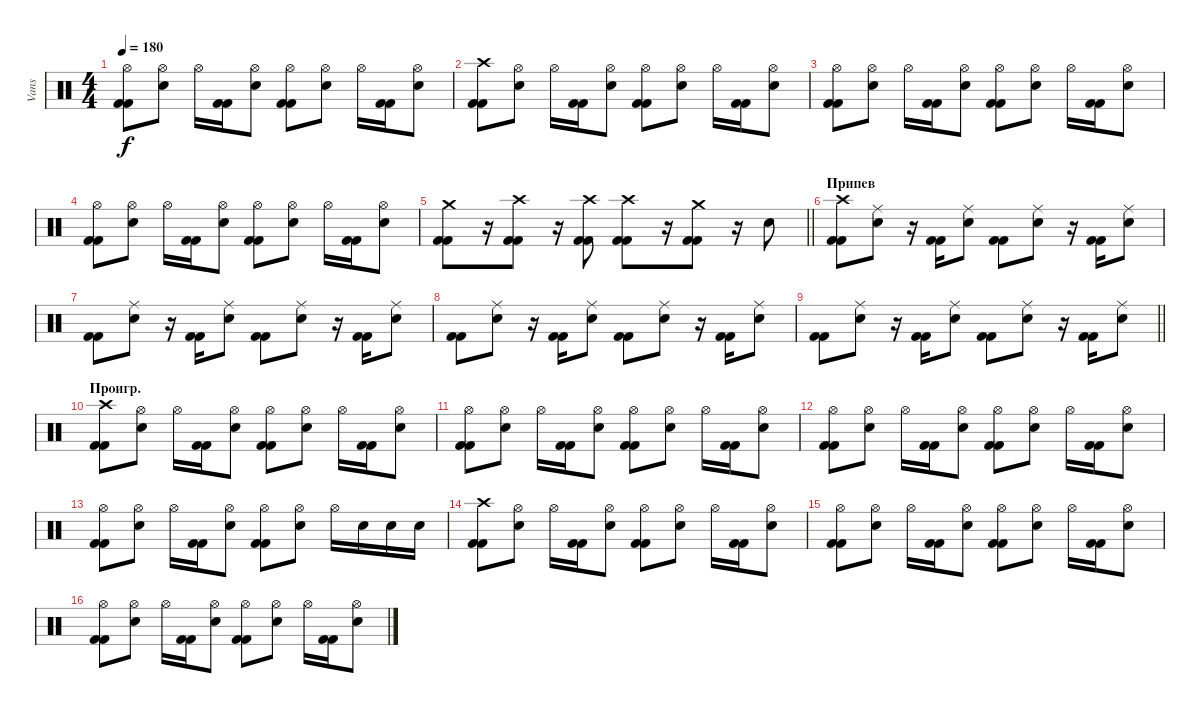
\track ("Vans" "Vans") {instrument percussion}
\staff {score}
\articulation defaults
\ts (4 4)
\tempo 180
\clef neutral
\ks c
("Hi-Hat (open)" "Kick (hit) 2" "Kick (hit) 2").8{dy f} ("Hi-Hat (open)" "Snare (hit) 2").8 "Hi-Hat (open)".16 ("Kick (hit) 2" "Kick (hit) 2").16 ("Hi-Hat (open)" "Snare (hit) 2").8 ("Hi-Hat (open)" "Kick (hit) 2" "Kick (hit) 2").8 ("Hi-Hat (open)" "Snare (hit) 2").8 "Hi-Hat (open)".16 ("Kick (hit) 2" "Kick (hit) 2").16 ("Hi-Hat (open)" "Snare (hit) 2").8 |
("Crash high (hit)" "Kick (hit) 2" "Kick (hit) 2").8 ("Hi-Hat (open)" "Snare (hit) 2").8 "Hi-Hat (open)".16 ("Kick (hit) 2" "Kick (hit) 2").16 ("Hi-Hat (open)" "Snare (hit) 2").8 ("Hi-Hat (open)" "Kick (hit) 2" "Kick (hit) 2").8 ("Hi-Hat (open)" "Snare (hit) 2").8 "Hi-Hat (open)".16 ("Kick (hit) 2" "Kick (hit) 2").16 ("Hi-Hat (open)" "Snare (hit) 2").8 |
("Hi-Hat (open)" "Kick (hit) 2" "Kick (hit) 2").8 ("Hi-Hat (open)" "Snare (hit) 2").8 "Hi-Hat (open)".16 ("Kick (hit) 2" "Kick (hit) 2").16 ("Hi-Hat (open)" "Snare (hit) 2").8 ("Hi-Hat (open)" "Kick (hit) 2" "Kick (hit) 2").8 ("Hi-Hat (open)" "Snare (hit) 2").8 "Hi-Hat (open)".16 ("Kick (hit) 2" "Kick (hit) 2").16 ("Hi-Hat (open)" "Snare (hit) 2").8 |
("Hi-Hat (open)" "Kick (hit) 2" "Kick (hit) 2").8 ("Hi-Hat (open)" "Snare (hit) 2").8 "Hi-Hat (open)".16 ("Kick (hit) 2" "Kick (hit) 2").16 ("Hi-Hat (open)" "Snare (hit) 2").8 ("Hi-Hat (open)" "Kick (hit) 2" "Kick (hit) 2").8 ("Hi-Hat (open)" "Snare (hit) 2").8 "Hi-Hat (open)".16 ("Kick (hit) 2" "Kick (hit) 2").16 ("Hi-Hat (open)" "Snare (hit) 2").8 |
\barLineRight lightlight
("Crash medium (hit)" "Kick (hit) 2" "Kick (hit) 2").8 r.16 ("Crash high (hit)" "Kick (hit) 2" "Kick (hit) 2").8 r.16 ("Crash high (hit)" "Kick (hit) 2" "Kick (hit) 2").8 ("Crash high (hit)" "Kick (hit) 2" "Kick (hit) 2").8 r.16 ("Crash medium (hit)" "Kick (hit) 2" "Kick (hit) 2").8 r.16 "Snare (hit) 2".8 |
\section ("" "Припев")
("Crash high (hit)" "Kick (hit) 2" "Kick (hit) 2").8 ("Ride (middle)" "Snare (hit) 2").8 r.16 ("Kick (hit) 2" "Kick (hit) 2").16 ("Ride (middle)" "Snare (hit) 2").8 ("Kick (hit) 2" "Kick (hit) 2").8 ("Ride (middle)" "Snare (hit) 2").8 r.16 ("Kick (hit) 2" "Kick (hit) 2").16 ("Ride (middle)" "Snare (hit) 2").8 |
("Kick (hit) 2" "Kick (hit) 2").8 ("Ride (middle)" "Snare (hit) 2").8 r.16 ("Kick (hit) 2" "Kick (hit) 2").16 ("Ride (middle)" "Snare (hit) 2").8 ("Kick (hit) 2" "Kick (hit) 2").8 ("Ride (middle)" "Snare (hit) 2").8 r.16 ("Kick (hit) 2" "Kick (hit) 2").16 ("Ride (middle)" "Snare (hit) 2").8 |
("Kick (hit) 2" "Kick (hit) 2").8 ("Ride (middle)" "Snare (hit) 2").8 r.16 ("Kick (hit) 2" "Kick (hit) 2").16 ("Ride (middle)" "Snare (hit) 2").8 ("Kick (hit) 2" "Kick (hit) 2").8 ("Ride (middle)" "Snare (hit) 2").8 r.16 ("Kick (hit) 2" "Kick (hit) 2").16 ("Ride (middle)" "Snare (hit) 2").8 |
\barLineRight lightlight
("Kick (hit) 2" "Kick (hit) 2").8 ("Ride (middle)" "Snare (hit) 2").8 r.16 ("Kick (hit) 2" "Kick (hit) 2").16 ("Ride (middle)" "Snare (hit) 2").8 ("Kick (hit) 2" "Kick (hit) 2").8 ("Ride (middle)" "Snare (hit) 2").8 r.16 ("Kick (hit) 2" "Kick (hit) 2").16 ("Ride (middle)" "Snare (hit) 2").8 |
\section ("" "Проигр.")
("Crash high (hit)" "Kick (hit) 2" "Kick (hit) 2").8 ("Hi-Hat (open)" "Snare (hit) 2").8 "Hi-Hat (open)".16 ("Kick (hit) 2" "Kick (hit) 2").16 ("Hi-Hat (open)" "Snare (hit) 2").8 ("Hi-Hat (open)" "Kick (hit) 2" "Kick (hit) 2").8 ("Hi-Hat (open)" "Snare (hit) 2").8 "Hi-Hat (open)".16 ("Kick (hit) 2" "Kick (hit) 2").16 ("Hi-Hat (open)" "Snare (hit) 2").8 |
("Hi-Hat (open)" "Kick (hit) 2" "Kick (hit) 2").8 ("Hi-Hat (open)" "Snare (hit) 2").8 "Hi-Hat (open)".16 ("Kick (hit) 2" "Kick (hit) 2").16 ("Hi-Hat (open)" "Snare (hit) 2").8 ("Hi-Hat (open)" "Kick (hit) 2" "Kick (hit) 2").8 ("Hi-Hat (open)" "Snare (hit) 2").8 "Hi-Hat (open)".16 ("Kick (hit) 2" "Kick (hit) 2").16 ("Hi-Hat (open)" "Snare (hit) 2").8 |
("Hi-Hat (open)" "Kick (hit) 2" "Kick (hit) 2").8 ("Hi-Hat (open)" "Snare (hit) 2").8 "Hi-Hat (open)".16 ("Kick (hit) 2" "Kick (hit) 2").16 ("Hi-Hat (open)" "Snare (hit) 2").8 ("Hi-Hat (open)" "Kick (hit) 2" "Kick (hit) 2").8 ("Hi-Hat (open)" "Snare (hit) 2").8 "Hi-Hat (open)".16 ("Kick (hit) 2" "Kick (hit) 2").16 ("Hi-Hat (open)" "Snare (hit) 2").8 |
("Hi-Hat (open)" "Kick (hit) 2" "Kick (hit) 2").8 ("Hi-Hat (open)" "Snare (hit) 2").8 "Hi-Hat (open)".16 ("Kick (hit) 2" "Kick (hit) 2").16 ("Hi-Hat (open)" "Snare (hit) 2").8 ("Hi-Hat (open)" "Kick (hit) 2" "Kick (hit) 2").8 ("Hi-Hat (open)" "Snare (hit) 2").8 "Hi-Hat (open)".16 "Snare (hit) 2".16 "Snare (hit) 2".16 "Snare (hit) 2".16 |
("Crash high (hit)" "Kick (hit) 2" "Kick (hit) 2").8 ("Hi-Hat (open)" "Snare (hit) 2").8 "Hi-Hat (open)".16 ("Kick (hit) 2" "Kick (hit) 2").16 ("Hi-Hat (open)" "Snare (hit) 2").8 ("Hi-Hat (open)" "Kick (hit) 2" "Kick (hit) 2").8 ("Hi-Hat (open)" "Snare (hit) 2").8 "Hi-Hat (open)".16 ("Kick (hit) 2" "Kick (hit) 2").16 ("Hi-Hat (open)" "Snare (hit) 2").8 |
("Hi-Hat (open)" "Kick (hit) 2" "Kick (hit) 2").8 ("Hi-Hat (open)" "Snare (hit) 2").8 "Hi-Hat (open)".16 ("Kick (hit) 2" "Kick (hit) 2").16 ("Hi-Hat (open)" "Snare (hit) 2").8 ("Hi-Hat (open)" "Kick (hit) 2" "Kick (hit) 2").8 ("Hi-Hat (open)" "Snare (hit) 2").8 "Hi-Hat (open)".16 ("Kick (hit) 2" "Kick (hit) 2").16 ("Hi-Hat (open)" "Snare (hit) 2").8 |
("Hi-Hat (open)" "Kick (hit) 2" "Kick (hit) 2").8 ("Hi-Hat (open)" "Snare (hit) 2").8 "Hi-Hat (open)".16 ("Kick (hit) 2" "Kick (hit) 2").16 ("Hi-Hat (open)" "Snare (hit) 2").8 ("Hi-Hat (open)" "Kick (hit) 2" "Kick (hit) 2").8 ("Hi-Hat (open)" "Snare (hit) 2").8 "Hi-Hat (open)".16 ("Kick (hit) 2" "Kick (hit) 2").16 ("Hi-Hat (open)" "Snare (hit) 2").8
